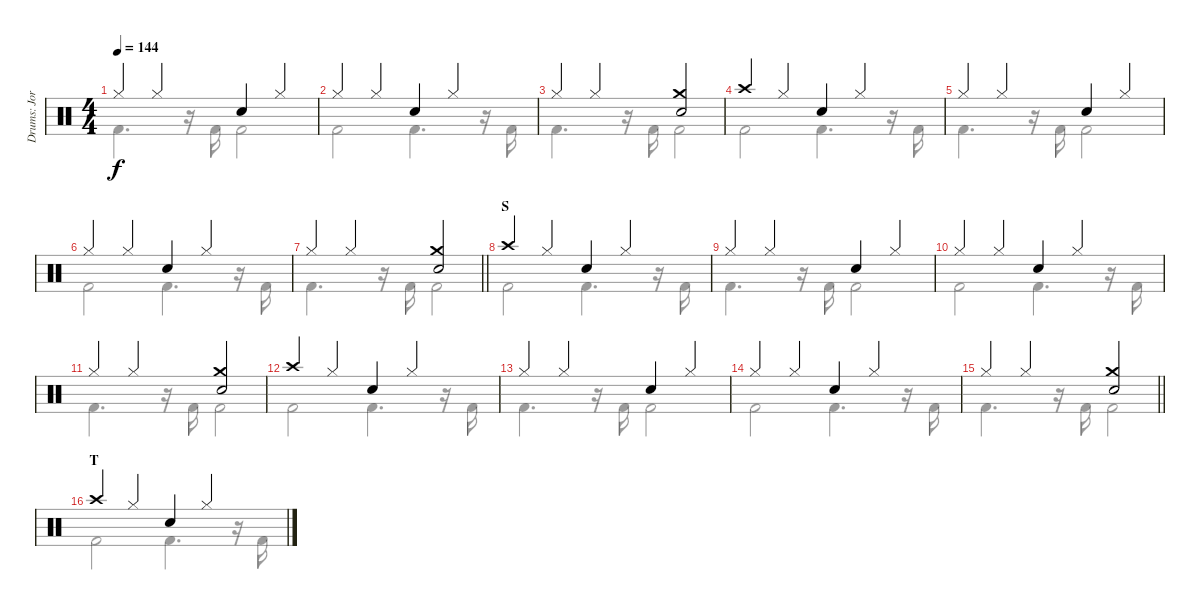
\track ("Drums: Jorg" "Drums: Jor") {instrument percussion}
\staff {score}
\articulation defaults
\voice
\ts (4 4)
\tempo 144
\clef neutral
\ks c "Hi-Hat (closed)".4{dy f} "Hi-Hat (closed)".4 "Snare (hit) 2".4 "Hi-Hat (closed)".4
|
"Hi-Hat (closed)".4 "Hi-Hat (closed)".4 "Snare (hit) 2".4 "Hi-Hat (closed)".4 |
"Hi-Hat (closed)".4 "Hi-Hat (closed)".4 ("Crash medium (hit)" "Snare (hit) 2").2 |
"Crash high (hit)".4 "Hi-Hat (closed)".4 "Snare (hit) 2".4 "Hi-Hat (closed)".4 |
"Hi-Hat (closed)".4 "Hi-Hat (closed)".4 "Snare (hit) 2".4 "Hi-Hat (closed)".4 |
"Hi-Hat (closed)".4 "Hi-Hat (closed)".4 "Snare (hit) 2".4 "Hi-Hat (closed)".4 |
\barLineRight lightlight "Hi-Hat (closed)".4 "Hi-Hat (closed)".4
("Crash medium (hit)" "Snare (hit) 2").2 |
\section ("" "S")
"Crash high (hit)".4 "Hi-Hat (closed)".4 "Snare (hit) 2".4 "Hi-Hat (closed)".4 |
"Hi-Hat (closed)".4 "Hi-Hat (closed)".4 "Snare (hit) 2".4 "Hi-Hat (closed)".4 |
"Hi-Hat (closed)".4 "Hi-Hat (closed)".4 "Snare (hit) 2".4 "Hi-Hat (closed)".4 |
"Hi-Hat (closed)".4 "Hi-Hat (closed)".4 ("Crash medium (hit)" "Snare (hit) 2").2 |
"Crash high (hit)".4 "Hi-Hat (closed)".4 "Snare (hit) 2".4 "Hi-Hat (closed)".4 |
"Hi-Hat (closed)".4 "Hi-Hat (closed)".4 "Snare (hit) 2".4 "Hi-Hat (closed)".4 |
"Hi-Hat (closed)".4 "Hi-Hat (closed)".4 "Snare (hit) 2".4 "Hi-Hat (closed)".4 |
\barLineRight lightlight "Hi-Hat (closed)".4 "Hi-Hat (closed)".4
("Crash medium (hit)" "Snare (hit) 2").2 |
\section ("" "T")
"Crash high (hit)".4 "Hi-Hat (closed)".4 "Snare (hit) 2".4 "Hi-Hat (closed)".4
\voice
\clef neutral
\ottava regular
\simile none
\ks c "Kick (hit) 2".4{d dy f}
r.16 "Kick (hit) 2".16 "Kick (hit) 2".2 |
"Kick (hit) 2".2 "Kick (hit) 2".4{d} r.16 "Kick (hit) 2".16 |
"Kick (hit) 2".4{d} r.16 "Kick (hit) 2".16 "Kick (hit) 2".2 |
"Kick (hit) 2".2 "Kick (hit) 2".4{d} r.16 "Kick (hit) 2".16 |
"Kick (hit) 2".4{d} r.16 "Kick (hit) 2".16 "Kick (hit) 2".2 |
"Kick (hit) 2".2 "Kick (hit) 2".4{d} r.16 "Kick (hit) 2".16 |
\barLineRight lightlight "Kick (hit) 2".4{d}
r.16 "Kick (hit) 2".16 "Kick (hit) 2".2 |
"Kick (hit) 2".2 "Kick (hit) 2".4{d} r.16 "Kick (hit) 2".16 |
"Kick (hit) 2".4{d} r.16 "Kick (hit) 2".16 "Kick (hit) 2".2 |
"Kick (hit) 2".2 "Kick (hit) 2".4{d} r.16 "Kick (hit) 2".16 |
"Kick (hit) 2".4{d} r.16 "Kick (hit) 2".16 "Kick (hit) 2".2 |
"Kick (hit) 2".2 "Kick (hit) 2".4{d} r.16 "Kick (hit) 2".16 |
"Kick (hit) 2".4{d} r.16 "Kick (hit) 2".16 "Kick (hit) 2".2 |
"Kick (hit) 2".2 "Kick (hit) 2".4{d} r.16 "Kick (hit) 2".16 |
\barLineRight lightlight "Kick (hit) 2".4{d}
r.16 "Kick (hit) 2".16 "Kick (hit) 2".2 |
"Kick (hit) 2".2 "Kick (hit) 2".4{d} r.16 "Kick (hit) 2".16
